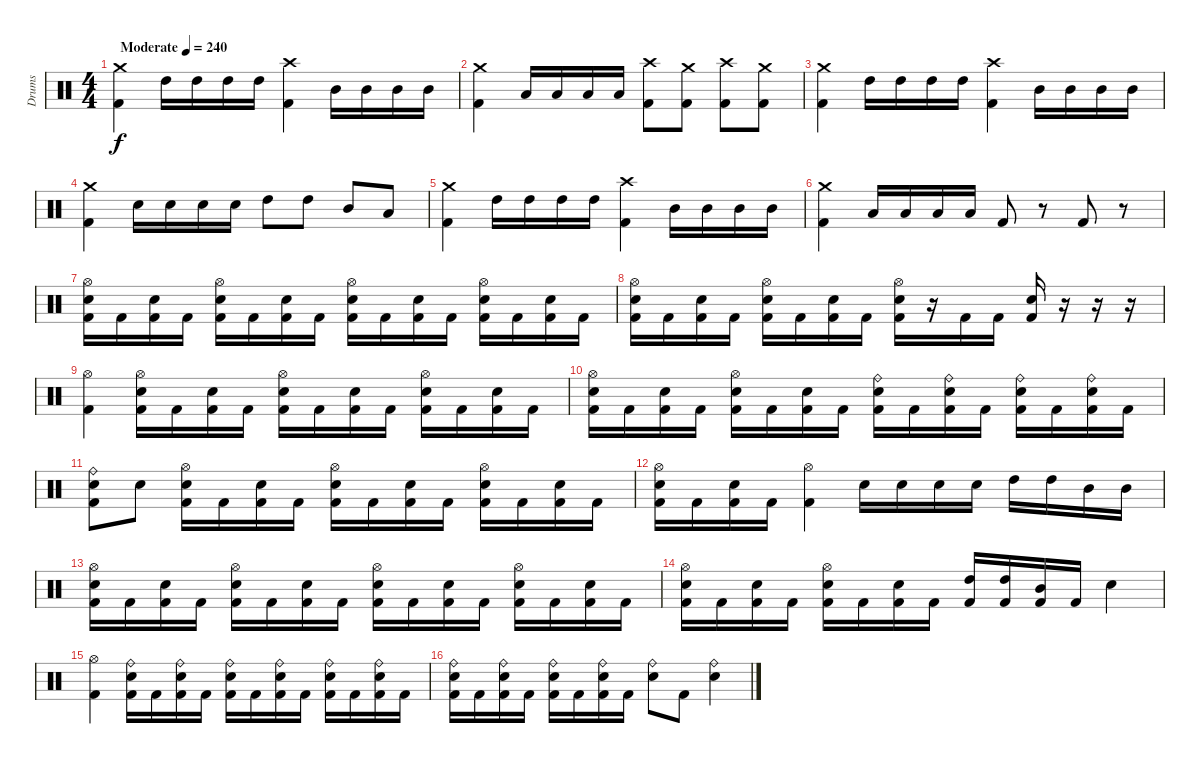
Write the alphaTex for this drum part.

\track ("Drums" "Drums") {instrument percussion}
\staff {score}
\articulation defaults
\ts (4 4)
\tempo (240 "Moderate")
\clef neutral
\ks c
("Crash medium (hit)" "Kick (hit) 2").4{dy f} "High Tom (hit)".16 "High Tom (hit)".16 "High Tom (hit)".16 "High Tom (hit)".16 ("Crash high (hit)" "Kick (hit) 2").4 "Mid Tom (hit)".16 "Mid Tom (hit)".16 "Mid Tom (hit)".16 "Mid Tom (hit)".16 |
("Crash medium (hit)" "Kick (hit) 2").4 "Low Tom (hit)".16 "Low Tom (hit)".16 "Low Tom (hit)".16 "Low Tom (hit)".16 ("Crash high (hit)" "Kick (hit) 2").8 ("Crash medium (hit)" "Kick (hit) 2").8 ("Crash high (hit)" "Kick (hit) 2").8 ("Crash medium (hit)" "Kick (hit) 2").8 |
("Crash medium (hit)" "Kick (hit) 2").4 "High Tom (hit)".16 "High Tom (hit)".16 "High Tom (hit)".16 "High Tom (hit)".16 ("Crash high (hit)" "Kick (hit) 2").4 "Mid Tom (hit)".16 "Mid Tom (hit)".16 "Mid Tom (hit)".16 "Mid Tom (hit)".16 |
("Crash medium (hit)" "Kick (hit) 2").4 "Snare (hit) 2".16 "Snare (hit) 2".16 "Snare (hit) 2".16 "Snare (hit) 2".16 "High Tom (hit)".8 "High Tom (hit)".8 "Mid Tom (hit)".8 "Low Tom (hit)".8 |
("Crash medium (hit)" "Kick (hit) 2").4 "High Tom (hit)".16 "High Tom (hit)".16 "High Tom (hit)".16 "High Tom (hit)".16 ("Crash high (hit)" "Kick (hit) 2").4 "Mid Tom (hit)".16 "Mid Tom (hit)".16 "Mid Tom (hit)".16 "Mid Tom (hit)".16 |
("Crash medium (hit)" "Kick (hit) 2").4 "Low Tom (hit)".16 "Low Tom (hit)".16 "Low Tom (hit)".16 "Low Tom (hit)".16 "Kick (hit) 2".8 r.8 "Kick (hit) 2".8 r.8 |
("Hi-Hat (open)" "Snare (hit) 2" "Kick (hit) 2").16 "Kick (hit) 2".16 ("Snare (hit) 2" "Kick (hit) 2").16 "Kick (hit) 2".16 ("Hi-Hat (open)" "Snare (hit) 2" "Kick (hit) 2").16 "Kick (hit) 2".16 ("Snare (hit) 2" "Kick (hit) 2").16 "Kick (hit) 2".16 ("Hi-Hat (open)" "Snare (hit) 2" "Kick (hit) 2").16 "Kick (hit) 2".16 ("Snare (hit) 2" "Kick (hit) 2").16 "Kick (hit) 2".16 ("Hi-Hat (open)" "Snare (hit) 2" "Kick (hit) 2").16 "Kick (hit) 2".16 ("Snare (hit) 2" "Kick (hit) 2").16 "Kick (hit) 2".16 |
("Hi-Hat (open)" "Snare (hit) 2" "Kick (hit) 2").16 "Kick (hit) 2".16 ("Snare (hit) 2" "Kick (hit) 2").16 "Kick (hit) 2".16 ("Hi-Hat (open)" "Snare (hit) 2" "Kick (hit) 2").16 "Kick (hit) 2".16 ("Snare (hit) 2" "Kick (hit) 2").16 "Kick (hit) 2".16 ("Hi-Hat (open)" "Snare (hit) 2" "Kick (hit) 2").16 r.16 "Kick (hit) 2".16 "Kick (hit) 2".16 ("Snare (hit) 2" "Kick (hit) 2").16 r.16 r.16 r.16 |
("Hi-Hat (open)" "Kick (hit) 2").4 ("Hi-Hat (open)" "Snare (hit) 2" "Kick (hit) 2").16 "Kick (hit) 2".16 ("Snare (hit) 2" "Kick (hit) 2").16 "Kick (hit) 2".16 ("Hi-Hat (open)" "Snare (hit) 2" "Kick (hit) 2").16 "Kick (hit) 2".16 ("Snare (hit) 2" "Kick (hit) 2").16 "Kick (hit) 2".16 ("Hi-Hat (open)" "Snare (hit) 2" "Kick (hit) 2").16 "Kick (hit) 2".16 ("Snare (hit) 2" "Kick (hit) 2").16 "Kick (hit) 2".16 |
("Hi-Hat (open)" "Snare (hit) 2" "Kick (hit) 2").16 "Kick (hit) 2".16 ("Snare (hit) 2" "Kick (hit) 2").16 "Kick (hit) 2".16 ("Hi-Hat (open)" "Snare (hit) 2" "Kick (hit) 2").16 "Kick (hit) 2".16 ("Snare (hit) 2" "Kick (hit) 2").16 "Kick (hit) 2".16 ("Ride (bell)" "Snare (hit) 2" "Kick (hit) 2").16 "Kick (hit) 2".16 ("Ride (bell)" "Snare (hit) 2" "Kick (hit) 2").16 "Kick (hit) 2".16 ("Ride (bell)" "Snare (hit) 2" "Kick (hit) 2").16 "Kick (hit) 2".16 ("Ride (bell)" "Snare (hit) 2" "Kick (hit) 2").16 "Kick (hit) 2".16 |
("Ride (bell)" "Snare (hit) 2" "Kick (hit) 2").8 "Snare (hit) 2".8 ("Hi-Hat (open)" "Snare (hit) 2" "Kick (hit) 2").16 "Kick (hit) 2".16 ("Snare (hit) 2" "Kick (hit) 2").16 "Kick (hit) 2".16 ("Hi-Hat (open)" "Snare (hit) 2" "Kick (hit) 2").16 "Kick (hit) 2".16 ("Snare (hit) 2" "Kick (hit) 2").16 "Kick (hit) 2".16 ("Hi-Hat (open)" "Snare (hit) 2" "Kick (hit) 2").16 "Kick (hit) 2".16 ("Snare (hit) 2" "Kick (hit) 2").16 "Kick (hit) 2".16 |
("Hi-Hat (open)" "Snare (hit) 2" "Kick (hit) 2").16 "Kick (hit) 2".16 ("Snare (hit) 2" "Kick (hit) 2").16 "Kick (hit) 2".16 ("Hi-Hat (open)" "Kick (hit) 2").4 "Snare (hit) 2".16 "Snare (hit) 2".16 "Snare (hit) 2".16 "Snare (hit) 2".16 "High Tom (hit)".16 "High Tom (hit)".16 "Mid Tom (hit)".16 "Mid Tom (hit)".16 |
("Hi-Hat (open)" "Snare (hit) 2" "Kick (hit) 2").16 "Kick (hit) 2".16 ("Snare (hit) 2" "Kick (hit) 2").16 "Kick (hit) 2".16 ("Hi-Hat (open)" "Snare (hit) 2" "Kick (hit) 2").16 "Kick (hit) 2".16 ("Snare (hit) 2" "Kick (hit) 2").16 "Kick (hit) 2".16 ("Hi-Hat (open)" "Snare (hit) 2" "Kick (hit) 2").16 "Kick (hit) 2".16 ("Snare (hit) 2" "Kick (hit) 2").16 "Kick (hit) 2".16 ("Hi-Hat (open)" "Snare (hit) 2" "Kick (hit) 2").16 "Kick (hit) 2".16 ("Snare (hit) 2" "Kick (hit) 2").16 "Kick (hit) 2".16 |
("Hi-Hat (open)" "Snare (hit) 2" "Kick (hit) 2").16 "Kick (hit) 2".16 ("Snare (hit) 2" "Kick (hit) 2").16 "Kick (hit) 2".16 ("Hi-Hat (open)" "Snare (hit) 2" "Kick (hit) 2").16 "Kick (hit) 2".16 ("Snare (hit) 2" "Kick (hit) 2").16 "Kick (hit) 2".16 ("High Tom (hit)" "Kick (hit) 2").16 ("High Tom (hit)" "Kick (hit) 2").16 ("Mid Tom (hit)" "Kick (hit) 2").16 "Kick (hit) 2".16 "Snare (hit) 2".4 |
("Hi-Hat (open)" "Kick (hit) 2").4 ("Ride (bell)" "Snare (hit) 2" "Kick (hit) 2").16 "Kick (hit) 2".16 ("Ride (bell)" "Snare (hit) 2" "Kick (hit) 2").16 "Kick (hit) 2".16 ("Ride (bell)" "Snare (hit) 2" "Kick (hit) 2").16 "Kick (hit) 2".16 ("Ride (bell)" "Snare (hit) 2" "Kick (hit) 2").16 "Kick (hit) 2".16 ("Ride (bell)" "Snare (hit) 2" "Kick (hit) 2").16 "Kick (hit) 2".16 ("Ride (bell)" "Snare (hit) 2" "Kick (hit) 2").16 "Kick (hit) 2".16 |
("Ride (bell)" "Snare (hit) 2" "Kick (hit) 2").16 "Kick (hit) 2".16 ("Ride (bell)" "Snare (hit) 2" "Kick (hit) 2").16 "Kick (hit) 2".16 ("Ride (bell)" "Snare (hit) 2" "Kick (hit) 2").16 "Kick (hit) 2".16 ("Ride (bell)" "Snare (hit) 2" "Kick (hit) 2").16 "Kick (hit) 2".16 ("Ride (bell)" "Snare (hit) 2").8 "Kick (hit) 2".8 ("Ride (bell)" "Snare (hit) 2").4
